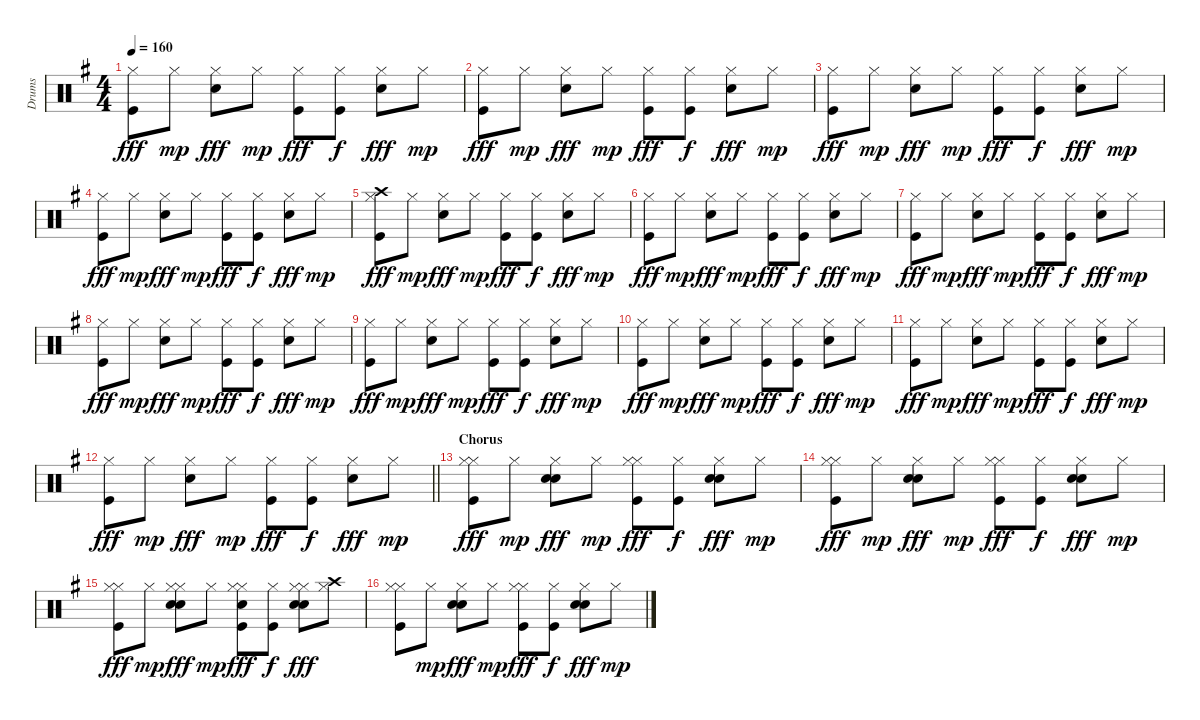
\track ("Drums" "Drums") {instrument percussion}
\staff {score}
\articulation defaults
\ts (4 4)
\tempo 160
\clef neutral
\ks g
("Hi-Hat (closed)" "Kick (hit)").8{dy fff} "Hi-Hat (closed)".8{dy mp} ("Snare (hit) 2" "Hi-Hat (closed)").8{dy fff} "Hi-Hat (closed)".8{dy mp} ("Hi-Hat (closed)" "Kick (hit)").8{dy fff} ("Hi-Hat (closed)" "Kick (hit)").8{dy f} ("Snare (hit) 2" "Hi-Hat (closed)").8{dy fff} "Hi-Hat (closed)".8{dy mp} |
("Hi-Hat (closed)" "Kick (hit)").8{dy fff} "Hi-Hat (closed)".8{dy mp} ("Snare (hit) 2" "Hi-Hat (closed)").8{dy fff} "Hi-Hat (closed)".8{dy mp} ("Hi-Hat (closed)" "Kick (hit)").8{dy fff} ("Hi-Hat (closed)" "Kick (hit)").8{dy f} ("Snare (hit) 2" "Hi-Hat (closed)").8{dy fff} "Hi-Hat (closed)".8{dy mp} |
("Hi-Hat (closed)" "Kick (hit)").8{dy fff} "Hi-Hat (closed)".8{dy mp} ("Snare (hit) 2" "Hi-Hat (closed)").8{dy fff} "Hi-Hat (closed)".8{dy mp} ("Hi-Hat (closed)" "Kick (hit)").8{dy fff} ("Hi-Hat (closed)" "Kick (hit)").8{dy f} ("Snare (hit) 2" "Hi-Hat (closed)").8{dy fff} "Hi-Hat (closed)".8{dy mp} |
("Hi-Hat (closed)" "Kick (hit)").8{dy fff} "Hi-Hat (closed)".8{dy mp} ("Snare (hit) 2" "Hi-Hat (closed)").8{dy fff} "Hi-Hat (closed)".8{dy mp} ("Hi-Hat (closed)" "Kick (hit)").8{dy fff} ("Hi-Hat (closed)" "Kick (hit)").8{dy f} ("Snare (hit) 2" "Hi-Hat (closed)").8{dy fff} "Hi-Hat (closed)".8{dy mp} |
("Hi-Hat (closed)" "Kick (hit)" "Crash high (hit)").8{dy fff} "Hi-Hat (closed)".8{dy mp} ("Snare (hit) 2" "Hi-Hat (closed)").8{dy fff} "Hi-Hat (closed)".8{dy mp} ("Hi-Hat (closed)" "Kick (hit)").8{dy fff} ("Hi-Hat (closed)" "Kick (hit)").8{dy f} ("Snare (hit) 2" "Hi-Hat (closed)").8{dy fff} "Hi-Hat (closed)".8{dy mp} |
("Hi-Hat (closed)" "Kick (hit)").8{dy fff} "Hi-Hat (closed)".8{dy mp} ("Snare (hit) 2" "Hi-Hat (closed)").8{dy fff} "Hi-Hat (closed)".8{dy mp} ("Hi-Hat (closed)" "Kick (hit)").8{dy fff} ("Hi-Hat (closed)" "Kick (hit)").8{dy f} ("Snare (hit) 2" "Hi-Hat (closed)").8{dy fff} "Hi-Hat (closed)".8{dy mp} |
("Hi-Hat (closed)" "Kick (hit)").8{dy fff} "Hi-Hat (closed)".8{dy mp} ("Snare (hit) 2" "Hi-Hat (closed)").8{dy fff} "Hi-Hat (closed)".8{dy mp} ("Hi-Hat (closed)" "Kick (hit)").8{dy fff} ("Hi-Hat (closed)" "Kick (hit)").8{dy f} ("Snare (hit) 2" "Hi-Hat (closed)").8{dy fff} "Hi-Hat (closed)".8{dy mp} |
("Hi-Hat (closed)" "Kick (hit)").8{dy fff} "Hi-Hat (closed)".8{dy mp} ("Snare (hit) 2" "Hi-Hat (closed)").8{dy fff} "Hi-Hat (closed)".8{dy mp} ("Hi-Hat (closed)" "Kick (hit)").8{dy fff} ("Hi-Hat (closed)" "Kick (hit)").8{dy f} ("Snare (hit) 2" "Hi-Hat (closed)").8{dy fff} "Hi-Hat (closed)".8{dy mp} |
("Hi-Hat (closed)" "Kick (hit)").8{dy fff} "Hi-Hat (closed)".8{dy mp} ("Snare (hit) 2" "Hi-Hat (closed)").8{dy fff} "Hi-Hat (closed)".8{dy mp} ("Hi-Hat (closed)" "Kick (hit)").8{dy fff} ("Hi-Hat (closed)" "Kick (hit)").8{dy f} ("Snare (hit) 2" "Hi-Hat (closed)").8{dy fff} "Hi-Hat (closed)".8{dy mp} |
("Hi-Hat (closed)" "Kick (hit)").8{dy fff} "Hi-Hat (closed)".8{dy mp} ("Snare (hit) 2" "Hi-Hat (closed)").8{dy fff} "Hi-Hat (closed)".8{dy mp} ("Hi-Hat (closed)" "Kick (hit)").8{dy fff} ("Hi-Hat (closed)" "Kick (hit)").8{dy f} ("Snare (hit) 2" "Hi-Hat (closed)").8{dy fff} "Hi-Hat (closed)".8{dy mp} |
("Hi-Hat (closed)" "Kick (hit)").8{dy fff} "Hi-Hat (closed)".8{dy mp} ("Snare (hit) 2" "Hi-Hat (closed)").8{dy fff} "Hi-Hat (closed)".8{dy mp} ("Hi-Hat (closed)" "Kick (hit)").8{dy fff} ("Hi-Hat (closed)" "Kick (hit)").8{dy f} ("Snare (hit) 2" "Hi-Hat (closed)").8{dy fff} "Hi-Hat (closed)".8{dy mp} |
\barLineRight lightlight
("Hi-Hat (closed)" "Kick (hit)").8{dy fff} "Hi-Hat (closed)".8{dy mp} ("Snare (hit) 2" "Hi-Hat (closed)").8{dy fff} "Hi-Hat (closed)".8{dy mp} ("Hi-Hat (closed)" "Kick (hit)").8{dy fff} ("Hi-Hat (closed)" "Kick (hit)").8{dy f} ("Snare (hit) 2" "Hi-Hat (closed)").8{dy fff} "Hi-Hat (closed)".8{dy mp} |
\section ("" "Chorus")
("Hi-Hat (closed)" "Kick (hit)" "Hi-Hat (closed)").8{dy fff} "Hi-Hat (closed)".8{dy mp} ("Snare (hit) 2" "Hi-Hat (closed)" "Electric Snare (hit)").8{dy fff} "Hi-Hat (closed)".8{dy mp} ("Hi-Hat (closed)" "Kick (hit)" "Hi-Hat (closed)").8{dy fff} ("Hi-Hat (closed)" "Kick (hit)").8{dy f} ("Snare (hit) 2" "Hi-Hat (closed)" "Electric Snare (hit)").8{dy fff} "Hi-Hat (closed)".8{dy mp} |
("Hi-Hat (closed)" "Kick (hit)" "Hi-Hat (closed)").8{dy fff} "Hi-Hat (closed)".8{dy mp} ("Snare (hit) 2" "Hi-Hat (closed)" "Electric Snare (hit)").8{dy fff} "Hi-Hat (closed)".8{dy mp} ("Hi-Hat (closed)" "Kick (hit)" "Hi-Hat (closed)").8{dy fff} ("Hi-Hat (closed)" "Kick (hit)").8{dy f} ("Snare (hit) 2" "Hi-Hat (closed)" "Electric Snare (hit)").8{dy fff} "Hi-Hat (closed)".8{dy mp} |
("Hi-Hat (closed)" "Kick (hit)" "Hi-Hat (closed)").8{dy fff} "Hi-Hat (closed)".8{dy mp} ("Snare (hit) 2" "Hi-Hat (closed)" "Hi-Hat (closed)" "Electric Snare (hit)").8{dy fff} "Hi-Hat (closed)".8{dy mp} ("Hi-Hat (closed)" "Kick (hit)" "Hi-Hat (closed)" "Electric Snare (hit)").8{dy fff} ("Hi-Hat (closed)" "Kick (hit)").8{dy f} ("Snare (hit) 2" "Hi-Hat (closed)" "Hi-Hat (closed)" "Electric Snare (hit)").8{dy fff} ("Hi-Hat (closed)" "Crash high (hit)").8 |
("Hi-Hat (closed)" "Kick (hit)" "Hi-Hat (closed)").8 "Hi-Hat (closed)".8{dy mp} ("Snare (hit) 2" "Hi-Hat (closed)" "Electric Snare (hit)").8{dy fff} "Hi-Hat (closed)".8{dy mp} ("Hi-Hat (closed)" "Kick (hit)" "Hi-Hat (closed)").8{dy fff} ("Hi-Hat (closed)" "Kick (hit)").8{dy f} ("Snare (hit) 2" "Hi-Hat (closed)" "Electric Snare (hit)").8{dy fff} "Hi-Hat (closed)".8{dy mp}
